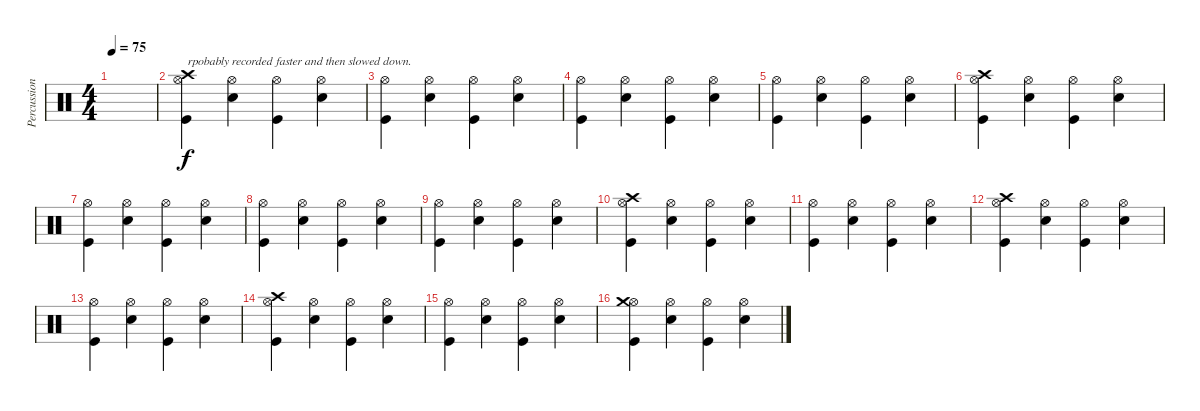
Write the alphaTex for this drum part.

\track ("Percussion" "Percussion") {instrument percussion}
\staff {score}
\articulation defaults
\ts (4 4)
\tempo 75
\clef neutral
\ks c
|
("Hi-Hat (open)" "Crash high (hit)" "Kick (hit)").4{txt "rpobably recorded faster and then slowed down."} ("Hi-Hat (open)" "Snare (hit) 2").4 ("Hi-Hat (open)" "Kick (hit)").4 ("Hi-Hat (open)" "Snare (hit) 2").4 |
("Hi-Hat (open)" "Kick (hit)").4 ("Hi-Hat (open)" "Snare (hit) 2").4 ("Hi-Hat (open)" "Kick (hit)").4 ("Hi-Hat (open)" "Snare (hit) 2").4 |
("Hi-Hat (open)" "Kick (hit)").4 ("Hi-Hat (open)" "Snare (hit) 2").4 ("Hi-Hat (open)" "Kick (hit)").4 ("Hi-Hat (open)" "Snare (hit) 2").4 |
("Hi-Hat (open)" "Kick (hit)").4 ("Hi-Hat (open)" "Snare (hit) 2").4 ("Hi-Hat (open)" "Kick (hit)").4 ("Hi-Hat (open)" "Snare (hit) 2").4 |
("Hi-Hat (open)" "Crash high (hit)" "Kick (hit)").4 ("Hi-Hat (open)" "Snare (hit) 2").4 ("Hi-Hat (open)" "Kick (hit)").4 ("Hi-Hat (open)" "Snare (hit) 2").4 |
("Hi-Hat (open)" "Kick (hit)").4 ("Hi-Hat (open)" "Snare (hit) 2").4 ("Hi-Hat (open)" "Kick (hit)").4 ("Hi-Hat (open)" "Snare (hit) 2").4 |
("Hi-Hat (open)" "Kick (hit)").4 ("Hi-Hat (open)" "Snare (hit) 2").4 ("Hi-Hat (open)" "Kick (hit)").4 ("Hi-Hat (open)" "Snare (hit) 2").4 |
("Hi-Hat (open)" "Kick (hit)").4 ("Hi-Hat (open)" "Snare (hit) 2").4 ("Hi-Hat (open)" "Kick (hit)").4 ("Hi-Hat (open)" "Snare (hit) 2").4 |
("Hi-Hat (open)" "Crash high (hit)" "Kick (hit)").4 ("Hi-Hat (open)" "Snare (hit) 2").4 ("Hi-Hat (open)" "Kick (hit)").4 ("Hi-Hat (open)" "Snare (hit) 2").4 |
("Hi-Hat (open)" "Kick (hit)").4 ("Hi-Hat (open)" "Snare (hit) 2").4 ("Hi-Hat (open)" "Kick (hit)").4 ("Hi-Hat (open)" "Snare (hit) 2").4 |
("Hi-Hat (open)" "Crash high (hit)" "Kick (hit)").4 ("Hi-Hat (open)" "Snare (hit) 2").4 ("Hi-Hat (open)" "Kick (hit)").4 ("Hi-Hat (open)" "Snare (hit) 2").4 |
("Hi-Hat (open)" "Kick (hit)").4 ("Hi-Hat (open)" "Snare (hit) 2").4 ("Hi-Hat (open)" "Kick (hit)").4 ("Hi-Hat (open)" "Snare (hit) 2").4 |
("Hi-Hat (open)" "Crash high (hit)" "Kick (hit)").4 ("Hi-Hat (open)" "Snare (hit) 2").4 ("Hi-Hat (open)" "Kick (hit)").4 ("Hi-Hat (open)" "Snare (hit) 2").4 |
("Hi-Hat (open)" "Kick (hit)").4 ("Hi-Hat (open)" "Snare (hit) 2").4 ("Hi-Hat (open)" "Kick (hit)").4 ("Hi-Hat (open)" "Snare (hit) 2").4 |
("Hi-Hat (open)" "Crash medium (hit)" "Kick (hit)").4 ("Hi-Hat (open)" "Snare (hit) 2").4 ("Hi-Hat (open)" "Kick (hit)").4 ("Hi-Hat (open)" "Snare (hit) 2").4
